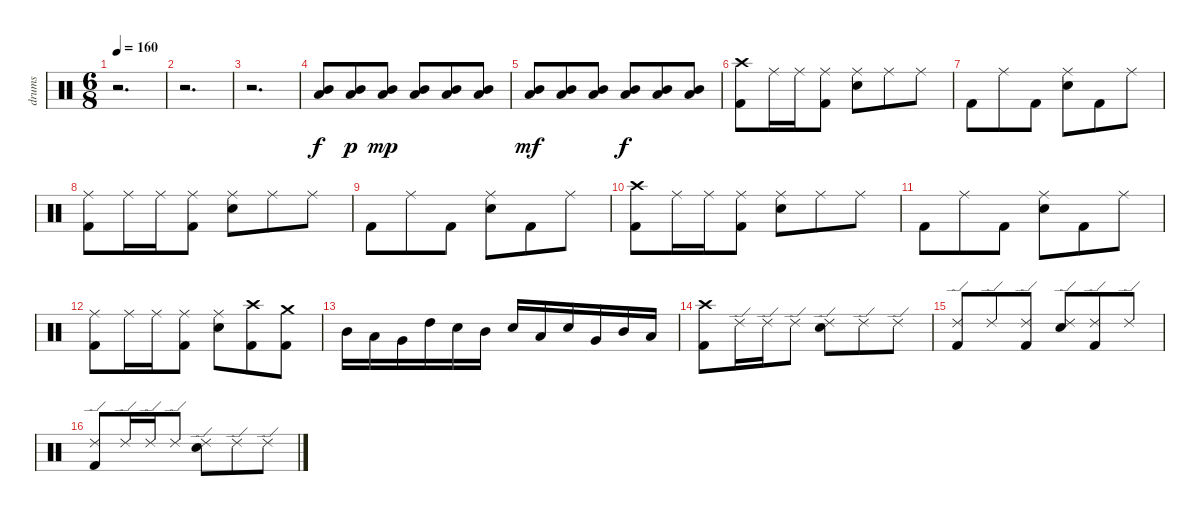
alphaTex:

\track ("drums" "drums") {instrument percussion}
\staff {score}
\articulation defaults
\ts (6 8)
\tempo 160
\clef neutral
\ks c
r.2{d dy f} |
r.2{d} |
r.2{d} |
("Mid Tom (hit)" "Low Tom (hit)").8 ("Mid Tom (hit)" "Low Tom (hit)").8{dy p} ("Mid Tom (hit)" "Low Tom (hit)").8{dy mp} ("Mid Tom (hit)" "Low Tom (hit)").8 ("Mid Tom (hit)" "Low Tom (hit)").8 ("Mid Tom (hit)" "Low Tom (hit)").8 |
("Mid Tom (hit)" "Low Tom (hit)").8{dy mf} ("Mid Tom (hit)" "Low Tom (hit)").8 ("Mid Tom (hit)" "Low Tom (hit)").8 ("Mid Tom (hit)" "Low Tom (hit)").8{dy f} ("Mid Tom (hit)" "Low Tom (hit)").8 ("Mid Tom (hit)" "Low Tom (hit)").8 |
("Kick (hit) 2" "Crash high (hit)").8 "Ride (middle)".16 "Ride (middle)".16 ("Kick (hit) 2" "Ride (middle)").8 ("Electric Snare (hit)" "Ride (middle)").8 "Ride (middle)".8 "Ride (middle)".8 |
"Kick (hit) 2".8 "Ride (middle)".8 "Kick (hit) 2".8 ("Electric Snare (hit)" "Ride (middle)").8 "Kick (hit) 2".8 "Ride (middle)".8 |
("Ride (middle)" "Kick (hit) 2").8 "Ride (middle)".16 "Ride (middle)".16 ("Kick (hit) 2" "Ride (middle)").8 ("Electric Snare (hit)" "Ride (middle)").8 "Ride (middle)".8 "Ride (middle)".8 |
"Kick (hit) 2".8 "Ride (middle)".8 "Kick (hit) 2".8 ("Electric Snare (hit)" "Ride (middle)").8 "Kick (hit) 2".8 "Ride (middle)".8 |
("Kick (hit) 2" "Crash high (hit)").8 "Ride (middle)".16 "Ride (middle)".16 ("Kick (hit) 2" "Ride (middle)").8 ("Electric Snare (hit)" "Ride (middle)").8 "Ride (middle)".8 "Ride (middle)".8 |
"Kick (hit) 2".8 "Ride (middle)".8 "Kick (hit) 2".8 ("Electric Snare (hit)" "Ride (middle)").8 "Kick (hit) 2".8 "Ride (middle)".8 |
("Ride (middle)" "Kick (hit) 2").8 "Ride (middle)".16 "Ride (middle)".16 ("Kick (hit) 2" "Ride (middle)").8 ("Electric Snare (hit)" "Ride (middle)").8 ("Kick (hit) 2" "Crash high (hit)").8 ("Kick (hit) 2" "Crash medium (hit)").8 |
"Mid Tom (hit)".16 "Low Tom (hit)".16 "Very Low Tom (hit)".16 "High Tom (hit)".16 "Electric Snare (hit)".16 "Mid Tom (hit)".16 "Electric Snare (hit)".16 "Low Tom (hit)".16 "Electric Snare (hit)".16 "Very Low Tom (hit)".16 "Mid Tom (hit)".16 "Low Tom (hit)".16 |
("Kick (hit) 2" "Crash high (hit)").8 "Ride (edge) 2".16 "Ride (edge) 2".16 "Ride (edge) 2".8 ("Electric Snare (hit)" "Ride (edge) 2").8 "Ride (edge) 2".8 "Ride (edge) 2".8 |
("Kick (hit) 2" "Ride (edge) 2").8 "Ride (edge) 2".8 ("Kick (hit) 2" "Ride (edge) 2").8 ("Electric Snare (hit)" "Ride (edge) 2").8 ("Kick (hit) 2" "Ride (edge) 2").8 "Ride (edge) 2".8 |
("Ride (edge) 2" "Kick (hit) 2").8 "Ride (edge) 2".16 "Ride (edge) 2".16 "Ride (edge) 2".8 ("Electric Snare (hit)" "Ride (edge) 2").8 "Ride (edge) 2".8 "Ride (edge) 2".8
